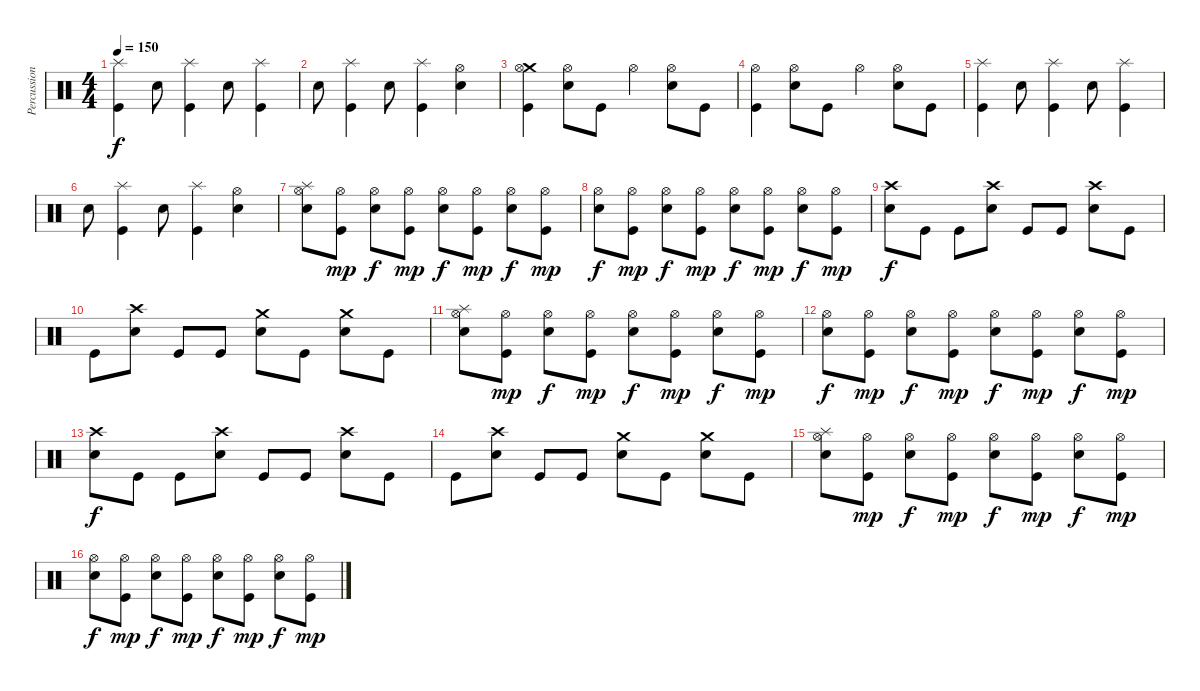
\track ("Percussions" "Percussion") {instrument percussion}
\staff {score}
\articulation defaults
\ts (4 4)
\tempo 150
\clef neutral
\ks c
("Splash (hit)" "Kick (hit)").4{dy f} "Electric Snare (hit)".8 ("Splash (hit)" "Kick (hit)").4 "Electric Snare (hit)".8 ("Splash (hit)" "Kick (hit)").4 |
"Electric Snare (hit)".8 ("Splash (hit)" "Kick (hit)").4 "Electric Snare (hit)".8 ("Splash (hit)" "Kick (hit)").4 ("Hi-Hat (open)" "Electric Snare (hit)").4 |
("Crash medium (hit)" "Kick (hit)" "Hi-Hat (open)").4 ("Hi-Hat (open)" "Electric Snare (hit)").8 "Kick (hit)".8 "Hi-Hat (open)".4 ("Hi-Hat (open)" "Electric Snare (hit)").8 "Kick (hit)".8 |
("Kick (hit)" "Hi-Hat (open)").4 ("Hi-Hat (open)" "Electric Snare (hit)").8 "Kick (hit)".8 "Hi-Hat (open)".4 ("Hi-Hat (open)" "Electric Snare (hit)").8 "Kick (hit)".8 |
("Splash (hit)" "Kick (hit)").4 "Electric Snare (hit)".8 ("Splash (hit)" "Kick (hit)").4 "Electric Snare (hit)".8 ("Splash (hit)" "Kick (hit)").4 |
"Electric Snare (hit)".8 ("Splash (hit)" "Kick (hit)").4 "Electric Snare (hit)".8 ("Splash (hit)" "Kick (hit)").4 ("Hi-Hat (open)" "Electric Snare (hit)").4 |
("Splash (hit)" "Hi-Hat (open)" "Electric Snare (hit)").8 ("Hi-Hat (open)" "Kick (hit)").8{dy mp} ("Hi-Hat (open)" "Electric Snare (hit)").8{dy f} ("Hi-Hat (open)" "Kick (hit)").8{dy mp} ("Hi-Hat (open)" "Electric Snare (hit)").8{dy f} ("Hi-Hat (open)" "Kick (hit)").8{dy mp} ("Hi-Hat (open)" "Electric Snare (hit)").8{dy f} ("Hi-Hat (open)" "Kick (hit)").8{dy mp} |
("Hi-Hat (open)" "Electric Snare (hit)").8{dy f} ("Hi-Hat (open)" "Kick (hit)").8{dy mp} ("Hi-Hat (open)" "Electric Snare (hit)").8{dy f} ("Hi-Hat (open)" "Kick (hit)").8{dy mp} ("Hi-Hat (open)" "Electric Snare (hit)").8{dy f} ("Hi-Hat (open)" "Kick (hit)").8{dy mp} ("Hi-Hat (open)" "Electric Snare (hit)").8{dy f} ("Hi-Hat (open)" "Kick (hit)").8{dy mp} |
("Crash high (hit)" "Electric Snare (hit)").8{dy f} "Kick (hit)".8 "Kick (hit)".8 ("Crash high (hit)" "Electric Snare (hit)").8 "Kick (hit)".8 "Kick (hit)".8 ("Crash high (hit)" "Electric Snare (hit)").8 "Kick (hit)".8 |
"Kick (hit)".8 ("Crash high (hit)" "Electric Snare (hit)").8 "Kick (hit)".8 "Kick (hit)".8 ("Crash medium (hit)" "Electric Snare (hit)").8 "Kick (hit)".8 ("Crash medium (hit)" "Electric Snare (hit)").8 "Kick (hit)".8 |
("Splash (hit)" "Hi-Hat (open)" "Electric Snare (hit)").8 ("Hi-Hat (open)" "Kick (hit)").8{dy mp} ("Hi-Hat (open)" "Electric Snare (hit)").8{dy f} ("Hi-Hat (open)" "Kick (hit)").8{dy mp} ("Hi-Hat (open)" "Electric Snare (hit)").8{dy f} ("Hi-Hat (open)" "Kick (hit)").8{dy mp} ("Hi-Hat (open)" "Electric Snare (hit)").8{dy f} ("Hi-Hat (open)" "Kick (hit)").8{dy mp} |
("Hi-Hat (open)" "Electric Snare (hit)").8{dy f} ("Hi-Hat (open)" "Kick (hit)").8{dy mp} ("Hi-Hat (open)" "Electric Snare (hit)").8{dy f} ("Hi-Hat (open)" "Kick (hit)").8{dy mp} ("Hi-Hat (open)" "Electric Snare (hit)").8{dy f} ("Hi-Hat (open)" "Kick (hit)").8{dy mp} ("Hi-Hat (open)" "Electric Snare (hit)").8{dy f} ("Hi-Hat (open)" "Kick (hit)").8{dy mp} |
("Crash high (hit)" "Electric Snare (hit)").8{dy f} "Kick (hit)".8 "Kick (hit)".8 ("Crash high (hit)" "Electric Snare (hit)").8 "Kick (hit)".8 "Kick (hit)".8 ("Crash high (hit)" "Electric Snare (hit)").8 "Kick (hit)".8 |
"Kick (hit)".8 ("Crash high (hit)" "Electric Snare (hit)").8 "Kick (hit)".8 "Kick (hit)".8 ("Crash medium (hit)" "Electric Snare (hit)").8 "Kick (hit)".8 ("Crash medium (hit)" "Electric Snare (hit)").8 "Kick (hit)".8 |
("Splash (hit)" "Hi-Hat (open)" "Electric Snare (hit)").8 ("Hi-Hat (open)" "Kick (hit)").8{dy mp} ("Hi-Hat (open)" "Electric Snare (hit)").8{dy f} ("Hi-Hat (open)" "Kick (hit)").8{dy mp} ("Hi-Hat (open)" "Electric Snare (hit)").8{dy f} ("Hi-Hat (open)" "Kick (hit)").8{dy mp} ("Hi-Hat (open)" "Electric Snare (hit)").8{dy f} ("Hi-Hat (open)" "Kick (hit)").8{dy mp} |
("Hi-Hat (open)" "Electric Snare (hit)").8{dy f} ("Hi-Hat (open)" "Kick (hit)").8{dy mp} ("Hi-Hat (open)" "Electric Snare (hit)").8{dy f} ("Hi-Hat (open)" "Kick (hit)").8{dy mp} ("Hi-Hat (open)" "Electric Snare (hit)").8{dy f} ("Hi-Hat (open)" "Kick (hit)").8{dy mp} ("Hi-Hat (open)" "Electric Snare (hit)").8{dy f} ("Hi-Hat (open)" "Kick (hit)").8{dy mp}
